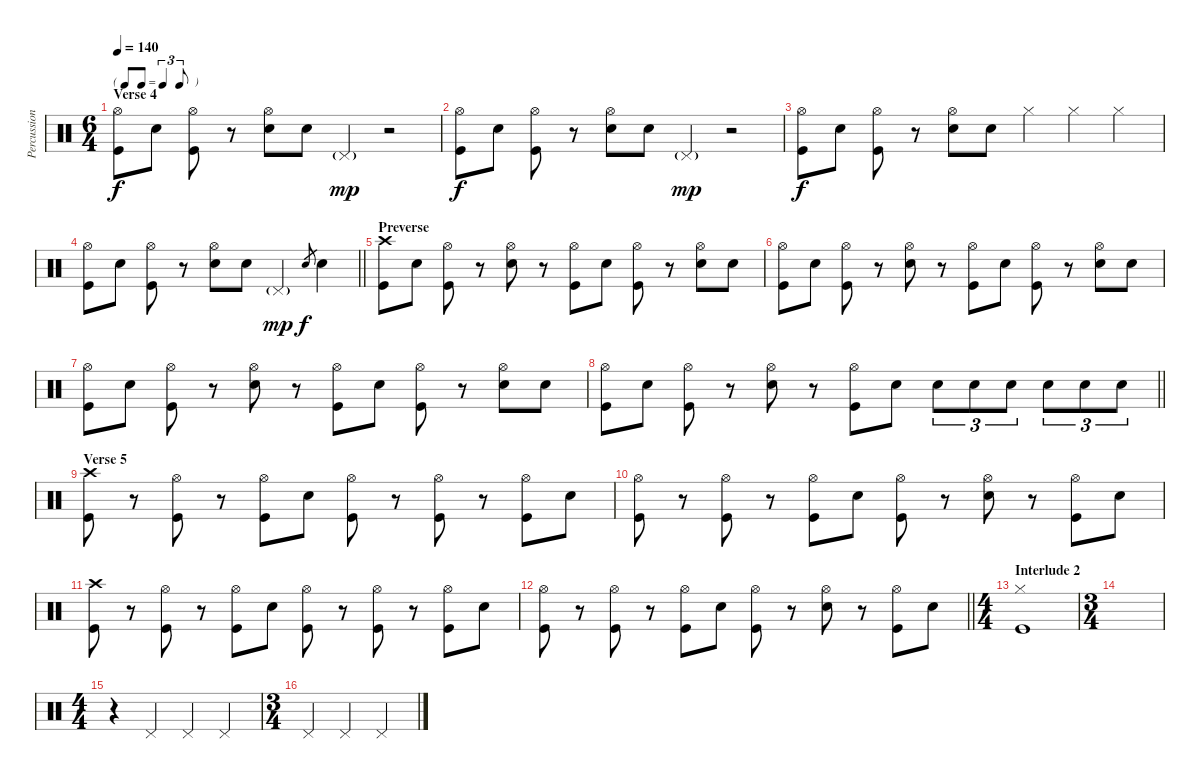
\track ("Percussion" "Percussion") {instrument percussion}
\staff {score}
\articulation defaults
\ts (6 4)
\tf triplet8th
\section ("" "Verse 4")
\tempo 140
\clef neutral
\ks c
("Hi-Hat (open)" "Kick (hit)").8{dy f} "Electric Snare (hit)".8 ("Hi-Hat (open)" "Kick (hit)").8 r.8 ("Hi-Hat (open)" "Electric Snare (hit)").8 "Electric Snare (hit)".8 "Pedal Hi-Hat (hit)"{g}.4{dy mp} r.2 |
("Hi-Hat (open)" "Kick (hit)").8{dy f} "Electric Snare (hit)".8 ("Hi-Hat (open)" "Kick (hit)").8 r.8 ("Hi-Hat (open)" "Electric Snare (hit)").8 "Electric Snare (hit)".8 "Pedal Hi-Hat (hit)"{g}.4{dy mp} r.2 |
("Hi-Hat (open)" "Kick (hit)").8{dy f} "Electric Snare (hit)".8 ("Hi-Hat (open)" "Kick (hit)").8 r.8 ("Hi-Hat (open)" "Electric Snare (hit)").8 "Electric Snare (hit)".8 "Hi-Hat (closed)".4 "Hi-Hat (closed)".4 "Hi-Hat (closed)".4 |
\barLineRight lightlight
("Hi-Hat (open)" "Kick (hit)").8 "Electric Snare (hit)".8 ("Hi-Hat (open)" "Kick (hit)").8 r.8 ("Hi-Hat (open)" "Electric Snare (hit)").8 "Electric Snare (hit)".8 "Pedal Hi-Hat (hit)"{g}.2{dy mp} "Electric Snare (hit)".8{gr dy f} "Electric Snare (hit)".4 |
\section ("" "Preverse")
("Crash high (hit)" "Kick (hit)").8 "Electric Snare (hit)".8 ("Hi-Hat (open)" "Kick (hit)").8 r.8 ("Hi-Hat (open)" "Electric Snare (hit)").8 r.8 ("Hi-Hat (open)" "Kick (hit)").8 "Electric Snare (hit)".8 ("Hi-Hat (open)" "Kick (hit)").8 r.8 ("Hi-Hat (open)" "Electric Snare (hit)").8 "Electric Snare (hit)".8 |
("Hi-Hat (open)" "Kick (hit)").8 "Electric Snare (hit)".8 ("Hi-Hat (open)" "Kick (hit)").8 r.8 ("Hi-Hat (open)" "Electric Snare (hit)").8 r.8 ("Hi-Hat (open)" "Kick (hit)").8 "Electric Snare (hit)".8 ("Hi-Hat (open)" "Kick (hit)").8 r.8 ("Hi-Hat (open)" "Electric Snare (hit)").8 "Electric Snare (hit)".8 |
("Hi-Hat (open)" "Kick (hit)").8 "Electric Snare (hit)".8 ("Hi-Hat (open)" "Kick (hit)").8 r.8 ("Hi-Hat (open)" "Electric Snare (hit)").8 r.8 ("Hi-Hat (open)" "Kick (hit)").8 "Electric Snare (hit)".8 ("Hi-Hat (open)" "Kick (hit)").8 r.8 ("Hi-Hat (open)" "Electric Snare (hit)").8 "Electric Snare (hit)".8 |
\barLineRight lightlight
("Hi-Hat (open)" "Kick (hit)").8 "Electric Snare (hit)".8 ("Hi-Hat (open)" "Kick (hit)").8 r.8 ("Hi-Hat (open)" "Electric Snare (hit)").8 r.8 ("Hi-Hat (open)" "Kick (hit)").8 "Electric Snare (hit)".8 "Electric Snare (hit)".8{tu (3 2)} "Electric Snare (hit)".8{tu (3 2)} "Electric Snare (hit)".8{tu (3 2)} "Electric Snare (hit)".8{tu (3 2)} "Electric Snare (hit)".8{tu (3 2)} "Electric Snare (hit)".8{tu (3 2)} |
\section ("" "Verse 5")
("Crash high (hit)" "Kick (hit)").8 r.8 ("Hi-Hat (open)" "Kick (hit)").8 r.8 ("Hi-Hat (open)" "Kick (hit)").8 "Electric Snare (hit)".8 ("Hi-Hat (open)" "Kick (hit)").8 r.8 ("Hi-Hat (open)" "Kick (hit)").8 r.8 ("Hi-Hat (open)" "Kick (hit)").8 "Electric Snare (hit)".8 |
("Hi-Hat (open)" "Kick (hit)").8 r.8 ("Hi-Hat (open)" "Kick (hit)").8 r.8 ("Hi-Hat (open)" "Kick (hit)").8 "Electric Snare (hit)".8 ("Hi-Hat (open)" "Kick (hit)").8 r.8 ("Hi-Hat (open)" "Electric Snare (hit)").8 r.8 ("Hi-Hat (open)" "Kick (hit)").8 "Electric Snare (hit)".8 |
("Crash high (hit)" "Kick (hit)").8 r.8 ("Hi-Hat (open)" "Kick (hit)").8 r.8 ("Hi-Hat (open)" "Kick (hit)").8 "Electric Snare (hit)".8 ("Hi-Hat (open)" "Kick (hit)").8 r.8 ("Hi-Hat (open)" "Kick (hit)").8 r.8 ("Hi-Hat (open)" "Kick (hit)").8 "Electric Snare (hit)".8 |
\barLineRight lightlight
("Hi-Hat (open)" "Kick (hit)").8 r.8 ("Hi-Hat (open)" "Kick (hit)").8 r.8 ("Hi-Hat (open)" "Kick (hit)").8 "Electric Snare (hit)".8 ("Hi-Hat (open)" "Kick (hit)").8 r.8 ("Hi-Hat (open)" "Electric Snare (hit)").8 r.8 ("Hi-Hat (open)" "Kick (hit)").8 "Electric Snare (hit)".8 |
\ts (4 4)
\section ("" "Interlude 2")
("Hi-Hat (closed)" "Kick (hit)").1 |
\ts (3 4)
|
\ts (4 4)
r.4 "Pedal Hi-Hat (hit)".4 "Pedal Hi-Hat (hit)".4 "Pedal Hi-Hat (hit)".4 |
\ts (3 4)
"Pedal Hi-Hat (hit)".4 "Pedal Hi-Hat (hit)".4 "Pedal Hi-Hat (hit)".4
